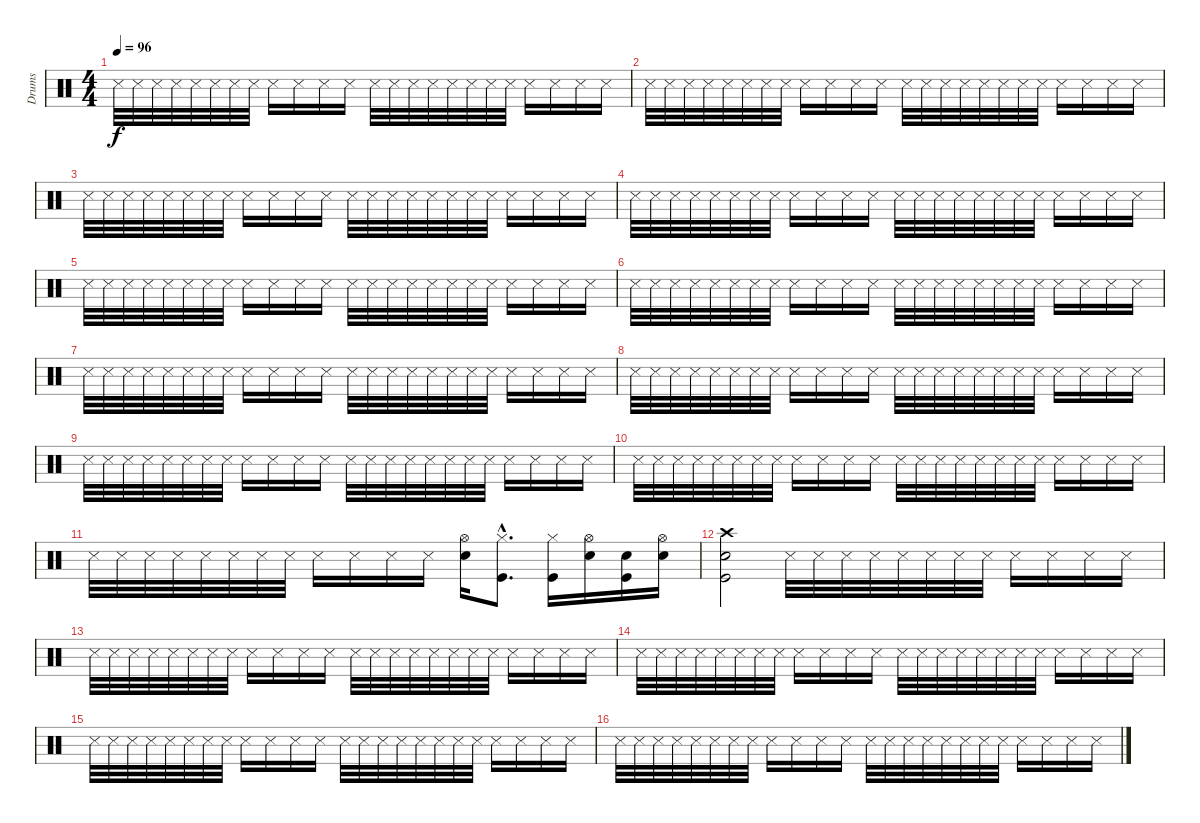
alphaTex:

\track ("Drums" "Drums") {instrument percussion}
\staff {score}
\articulation defaults
\ts (4 4)
\tempo 96
\clef neutral
\ks c "Metronome (hit)".32{dy f} "Metronome (hit)".32 "Metronome (hit)".32 "Metronome (hit)".32 "Metronome (hit)".32 "Metronome (hit)".32 "Metronome (hit)".32 "Metronome (hit)".32 "Metronome (hit)".16 "Metronome (hit)".16 "Metronome (hit)".16 "Metronome (hit)".16 "Metronome (hit)".32 "Metronome (hit)".32 "Metronome (hit)".32 "Metronome (hit)".32 "Metronome (hit)".32 "Metronome (hit)".32 "Metronome (hit)".32 "Metronome (hit)".32 "Metronome (hit)".16 "Metronome (hit)".16 "Metronome (hit)".16 "Metronome (hit)".16
|
"Metronome (hit)".32 "Metronome (hit)".32 "Metronome (hit)".32 "Metronome (hit)".32 "Metronome (hit)".32 "Metronome (hit)".32 "Metronome (hit)".32 "Metronome (hit)".32 "Metronome (hit)".16 "Metronome (hit)".16 "Metronome (hit)".16 "Metronome (hit)".16 "Metronome (hit)".32 "Metronome (hit)".32 "Metronome (hit)".32 "Metronome (hit)".32 "Metronome (hit)".32 "Metronome (hit)".32 "Metronome (hit)".32 "Metronome (hit)".32 "Metronome (hit)".16 "Metronome (hit)".16 "Metronome (hit)".16 "Metronome (hit)".16 |
"Metronome (hit)".32 "Metronome (hit)".32 "Metronome (hit)".32 "Metronome (hit)".32 "Metronome (hit)".32 "Metronome (hit)".32 "Metronome (hit)".32 "Metronome (hit)".32 "Metronome (hit)".16 "Metronome (hit)".16 "Metronome (hit)".16 "Metronome (hit)".16 "Metronome (hit)".32 "Metronome (hit)".32 "Metronome (hit)".32 "Metronome (hit)".32 "Metronome (hit)".32 "Metronome (hit)".32 "Metronome (hit)".32 "Metronome (hit)".32 "Metronome (hit)".16 "Metronome (hit)".16 "Metronome (hit)".16 "Metronome (hit)".16 |
"Metronome (hit)".32 "Metronome (hit)".32 "Metronome (hit)".32 "Metronome (hit)".32 "Metronome (hit)".32 "Metronome (hit)".32 "Metronome (hit)".32 "Metronome (hit)".32 "Metronome (hit)".16 "Metronome (hit)".16 "Metronome (hit)".16 "Metronome (hit)".16 "Metronome (hit)".32 "Metronome (hit)".32 "Metronome (hit)".32 "Metronome (hit)".32 "Metronome (hit)".32 "Metronome (hit)".32 "Metronome (hit)".32 "Metronome (hit)".32 "Metronome (hit)".16 "Metronome (hit)".16 "Metronome (hit)".16 "Metronome (hit)".16 |
"Metronome (hit)".32 "Metronome (hit)".32 "Metronome (hit)".32 "Metronome (hit)".32 "Metronome (hit)".32 "Metronome (hit)".32 "Metronome (hit)".32 "Metronome (hit)".32 "Metronome (hit)".16 "Metronome (hit)".16 "Metronome (hit)".16 "Metronome (hit)".16 "Metronome (hit)".32 "Metronome (hit)".32 "Metronome (hit)".32 "Metronome (hit)".32 "Metronome (hit)".32 "Metronome (hit)".32 "Metronome (hit)".32 "Metronome (hit)".32 "Metronome (hit)".16 "Metronome (hit)".16 "Metronome (hit)".16 "Metronome (hit)".16 |
"Metronome (hit)".32 "Metronome (hit)".32 "Metronome (hit)".32 "Metronome (hit)".32 "Metronome (hit)".32 "Metronome (hit)".32 "Metronome (hit)".32 "Metronome (hit)".32 "Metronome (hit)".16 "Metronome (hit)".16 "Metronome (hit)".16 "Metronome (hit)".16 "Metronome (hit)".32 "Metronome (hit)".32 "Metronome (hit)".32 "Metronome (hit)".32 "Metronome (hit)".32 "Metronome (hit)".32 "Metronome (hit)".32 "Metronome (hit)".32 "Metronome (hit)".16 "Metronome (hit)".16 "Metronome (hit)".16 "Metronome (hit)".16 |
"Metronome (hit)".32 "Metronome (hit)".32 "Metronome (hit)".32 "Metronome (hit)".32 "Metronome (hit)".32 "Metronome (hit)".32 "Metronome (hit)".32 "Metronome (hit)".32 "Metronome (hit)".16 "Metronome (hit)".16 "Metronome (hit)".16 "Metronome (hit)".16 "Metronome (hit)".32 "Metronome (hit)".32 "Metronome (hit)".32 "Metronome (hit)".32 "Metronome (hit)".32 "Metronome (hit)".32 "Metronome (hit)".32 "Metronome (hit)".32 "Metronome (hit)".16 "Metronome (hit)".16 "Metronome (hit)".16 "Metronome (hit)".16 |
"Metronome (hit)".32 "Metronome (hit)".32 "Metronome (hit)".32 "Metronome (hit)".32 "Metronome (hit)".32 "Metronome (hit)".32 "Metronome (hit)".32 "Metronome (hit)".32 "Metronome (hit)".16 "Metronome (hit)".16 "Metronome (hit)".16 "Metronome (hit)".16 "Metronome (hit)".32 "Metronome (hit)".32 "Metronome (hit)".32 "Metronome (hit)".32 "Metronome (hit)".32 "Metronome (hit)".32 "Metronome (hit)".32 "Metronome (hit)".32 "Metronome (hit)".16 "Metronome (hit)".16 "Metronome (hit)".16 "Metronome (hit)".16 |
"Metronome (hit)".32 "Metronome (hit)".32 "Metronome (hit)".32 "Metronome (hit)".32 "Metronome (hit)".32 "Metronome (hit)".32 "Metronome (hit)".32 "Metronome (hit)".32 "Metronome (hit)".16 "Metronome (hit)".16 "Metronome (hit)".16 "Metronome (hit)".16 "Metronome (hit)".32 "Metronome (hit)".32 "Metronome (hit)".32 "Metronome (hit)".32 "Metronome (hit)".32 "Metronome (hit)".32 "Metronome (hit)".32 "Metronome (hit)".32 "Metronome (hit)".16 "Metronome (hit)".16 "Metronome (hit)".16 "Metronome (hit)".16 |
"Metronome (hit)".32 "Metronome (hit)".32 "Metronome (hit)".32 "Metronome (hit)".32 "Metronome (hit)".32 "Metronome (hit)".32 "Metronome (hit)".32 "Metronome (hit)".32 "Metronome (hit)".16 "Metronome (hit)".16 "Metronome (hit)".16 "Metronome (hit)".16 "Metronome (hit)".32 "Metronome (hit)".32 "Metronome (hit)".32 "Metronome (hit)".32 "Metronome (hit)".32 "Metronome (hit)".32 "Metronome (hit)".32 "Metronome (hit)".32 "Metronome (hit)".16 "Metronome (hit)".16 "Metronome (hit)".16 "Metronome (hit)".16 |
"Metronome (hit)".32 "Metronome (hit)".32 "Metronome (hit)".32 "Metronome (hit)".32 "Metronome (hit)".32 "Metronome (hit)".32 "Metronome (hit)".32 "Metronome (hit)".32 "Metronome (hit)".16 "Metronome (hit)".16 "Metronome (hit)".16 "Metronome (hit)".16 ("Snare (hit) 2" "Hi-Hat (open)").16 ("Hi-Hat (closed)"{hac} "Kick (hit)"{hac}).8{d} ("Hi-Hat (closed)" "Kick (hit)").16 ("Hi-Hat (open)" "Snare (hit) 2").16 ("Snare (hit) 2" "Kick (hit)").16 ("Hi-Hat (open)" "Snare (hit) 2").16 |
("Crash high (hit)" "Snare (hit) 2" "Kick (hit)").2 "Metronome (hit)".32 "Metronome (hit)".32 "Metronome (hit)".32 "Metronome (hit)".32 "Metronome (hit)".32 "Metronome (hit)".32 "Metronome (hit)".32 "Metronome (hit)".32 "Metronome (hit)".16 "Metronome (hit)".16 "Metronome (hit)".16 "Metronome (hit)".16 |
"Metronome (hit)".32 "Metronome (hit)".32 "Metronome (hit)".32 "Metronome (hit)".32 "Metronome (hit)".32 "Metronome (hit)".32 "Metronome (hit)".32 "Metronome (hit)".32 "Metronome (hit)".16 "Metronome (hit)".16 "Metronome (hit)".16 "Metronome (hit)".16 "Metronome (hit)".32 "Metronome (hit)".32 "Metronome (hit)".32 "Metronome (hit)".32 "Metronome (hit)".32 "Metronome (hit)".32 "Metronome (hit)".32 "Metronome (hit)".32 "Metronome (hit)".16 "Metronome (hit)".16 "Metronome (hit)".16 "Metronome (hit)".16 |
"Metronome (hit)".32 "Metronome (hit)".32 "Metronome (hit)".32 "Metronome (hit)".32 "Metronome (hit)".32 "Metronome (hit)".32 "Metronome (hit)".32 "Metronome (hit)".32 "Metronome (hit)".16 "Metronome (hit)".16 "Metronome (hit)".16 "Metronome (hit)".16 "Metronome (hit)".32 "Metronome (hit)".32 "Metronome (hit)".32 "Metronome (hit)".32 "Metronome (hit)".32 "Metronome (hit)".32 "Metronome (hit)".32 "Metronome (hit)".32 "Metronome (hit)".16 "Metronome (hit)".16 "Metronome (hit)".16 "Metronome (hit)".16 |
"Metronome (hit)".32 "Metronome (hit)".32 "Metronome (hit)".32 "Metronome (hit)".32 "Metronome (hit)".32 "Metronome (hit)".32 "Metronome (hit)".32 "Metronome (hit)".32 "Metronome (hit)".16 "Metronome (hit)".16 "Metronome (hit)".16 "Metronome (hit)".16 "Metronome (hit)".32 "Metronome (hit)".32 "Metronome (hit)".32 "Metronome (hit)".32 "Metronome (hit)".32 "Metronome (hit)".32 "Metronome (hit)".32 "Metronome (hit)".32 "Metronome (hit)".16 "Metronome (hit)".16 "Metronome (hit)".16 "Metronome (hit)".16 |
"Metronome (hit)".32 "Metronome (hit)".32 "Metronome (hit)".32 "Metronome (hit)".32 "Metronome (hit)".32 "Metronome (hit)".32 "Metronome (hit)".32 "Metronome (hit)".32 "Metronome (hit)".16 "Metronome (hit)".16 "Metronome (hit)".16 "Metronome (hit)".16 "Metronome (hit)".32 "Metronome (hit)".32 "Metronome (hit)".32 "Metronome (hit)".32 "Metronome (hit)".32 "Metronome (hit)".32 "Metronome (hit)".32 "Metronome (hit)".32 "Metronome (hit)".16 "Metronome (hit)".16 "Metronome (hit)".16 "Metronome (hit)".16
